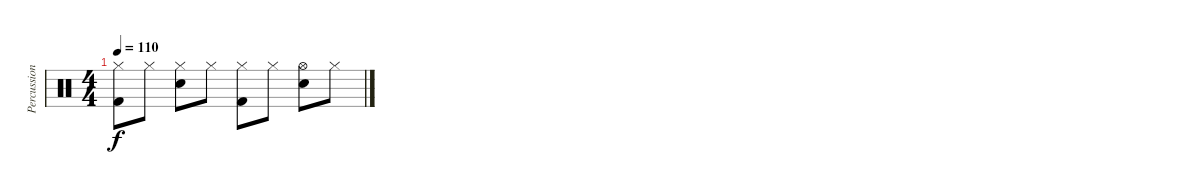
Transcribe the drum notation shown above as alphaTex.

\track ("Percussion" "Percussion") {instrument percussion}
\staff {score}
\articulation defaults
\ts (4 4)
\tempo 110
\clef neutral
\ks c
("Hi-Hat (closed)" "Kick (hit) 2").8{dy f} "Hi-Hat (closed)".8 ("Snare (hit) 2" "Hi-Hat (closed)").8 "Hi-Hat (closed)".8 ("Hi-Hat (closed)" "Kick (hit) 2").8 "Hi-Hat (closed)".8 ("Snare (hit) 2" "Hi-Hat (open)").8 "Hi-Hat (closed)".8
